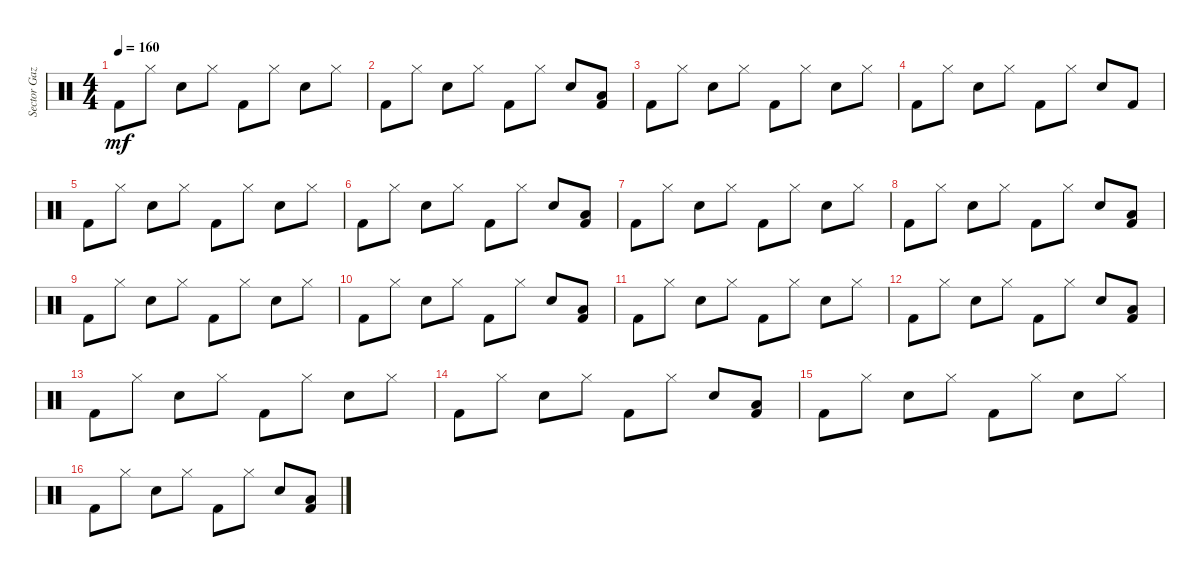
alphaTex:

\track ("Sector Gaza" "Sector Gaz") {instrument percussion}
\staff {score}
\articulation defaults
\ts (4 4)
\tempo 160
\clef neutral
\ks c "Kick (hit) 2".8{dy mf} "Hi-Hat (closed)".8 "Snare (hit) 2".8 "Hi-Hat (closed)".8 "Kick (hit) 2".8 "Hi-Hat (closed)".8 "Snare (hit) 2".8 "Hi-Hat (closed)".8
|
"Kick (hit) 2".8 "Hi-Hat (closed)".8 "Snare (hit) 2".8 "Hi-Hat (closed)".8 "Kick (hit) 2".8 "Hi-Hat (closed)".8 "Snare (hit) 2".8 ("Low Floor Tom (hit)" "Kick (hit) 2").8 |
"Kick (hit) 2".8 "Hi-Hat (closed)".8 "Snare (hit) 2".8 "Hi-Hat (closed)".8 "Kick (hit) 2".8 "Hi-Hat (closed)".8 "Snare (hit) 2".8 "Hi-Hat (closed)".8 |
"Kick (hit) 2".8 "Hi-Hat (closed)".8 "Snare (hit) 2".8 "Hi-Hat (closed)".8 "Kick (hit) 2".8 "Hi-Hat (closed)".8 "Snare (hit) 2".8 "Kick (hit) 2".8 |
"Kick (hit) 2".8 "Hi-Hat (closed)".8 "Snare (hit) 2".8 "Hi-Hat (closed)".8 "Kick (hit) 2".8 "Hi-Hat (closed)".8 "Snare (hit) 2".8 "Hi-Hat (closed)".8 |
"Kick (hit) 2".8 "Hi-Hat (closed)".8 "Snare (hit) 2".8 "Hi-Hat (closed)".8 "Kick (hit) 2".8 "Hi-Hat (closed)".8 "Snare (hit) 2".8 ("Kick (hit) 2" "Low Floor Tom (hit)").8 |
"Kick (hit) 2".8 "Hi-Hat (closed)".8 "Snare (hit) 2".8 "Hi-Hat (closed)".8 "Kick (hit) 2".8 "Hi-Hat (closed)".8 "Snare (hit) 2".8 "Hi-Hat (closed)".8 |
"Kick (hit) 2".8 "Hi-Hat (closed)".8 "Snare (hit) 2".8 "Hi-Hat (closed)".8 "Kick (hit) 2".8 "Hi-Hat (closed)".8 "Snare (hit) 2".8 ("Kick (hit) 2" "Low Floor Tom (hit)").8 |
"Kick (hit) 2".8 "Hi-Hat (closed)".8 "Snare (hit) 2".8 "Hi-Hat (closed)".8 "Kick (hit) 2".8 "Hi-Hat (closed)".8 "Snare (hit) 2".8 "Hi-Hat (closed)".8 |
"Kick (hit) 2".8 "Hi-Hat (closed)".8 "Snare (hit) 2".8 "Hi-Hat (closed)".8 "Kick (hit) 2".8 "Hi-Hat (closed)".8 "Snare (hit) 2".8 ("Kick (hit) 2" "Low Floor Tom (hit)").8 |
"Kick (hit) 2".8 "Hi-Hat (closed)".8 "Snare (hit) 2".8 "Hi-Hat (closed)".8 "Kick (hit) 2".8 "Hi-Hat (closed)".8 "Snare (hit) 2".8 "Hi-Hat (closed)".8 |
"Kick (hit) 2".8 "Hi-Hat (closed)".8 "Snare (hit) 2".8 "Hi-Hat (closed)".8 "Kick (hit) 2".8 "Hi-Hat (closed)".8 "Snare (hit) 2".8 ("Kick (hit) 2" "Low Floor Tom (hit)").8 |
"Kick (hit) 2".8 "Hi-Hat (closed)".8 "Snare (hit) 2".8 "Hi-Hat (closed)".8 "Kick (hit) 2".8 "Hi-Hat (closed)".8 "Snare (hit) 2".8 "Hi-Hat (closed)".8 |
"Kick (hit) 2".8 "Hi-Hat (closed)".8 "Snare (hit) 2".8 "Hi-Hat (closed)".8 "Kick (hit) 2".8 "Hi-Hat (closed)".8 "Snare (hit) 2".8 ("Kick (hit) 2" "Low Floor Tom (hit)").8 |
"Kick (hit) 2".8 "Hi-Hat (closed)".8 "Snare (hit) 2".8 "Hi-Hat (closed)".8 "Kick (hit) 2".8 "Hi-Hat (closed)".8 "Snare (hit) 2".8 "Hi-Hat (closed)".8 |
"Kick (hit) 2".8 "Hi-Hat (closed)".8 "Snare (hit) 2".8 "Hi-Hat (closed)".8 "Kick (hit) 2".8 "Hi-Hat (closed)".8 "Snare (hit) 2".8 ("Kick (hit) 2" "Low Floor Tom (hit)").8
